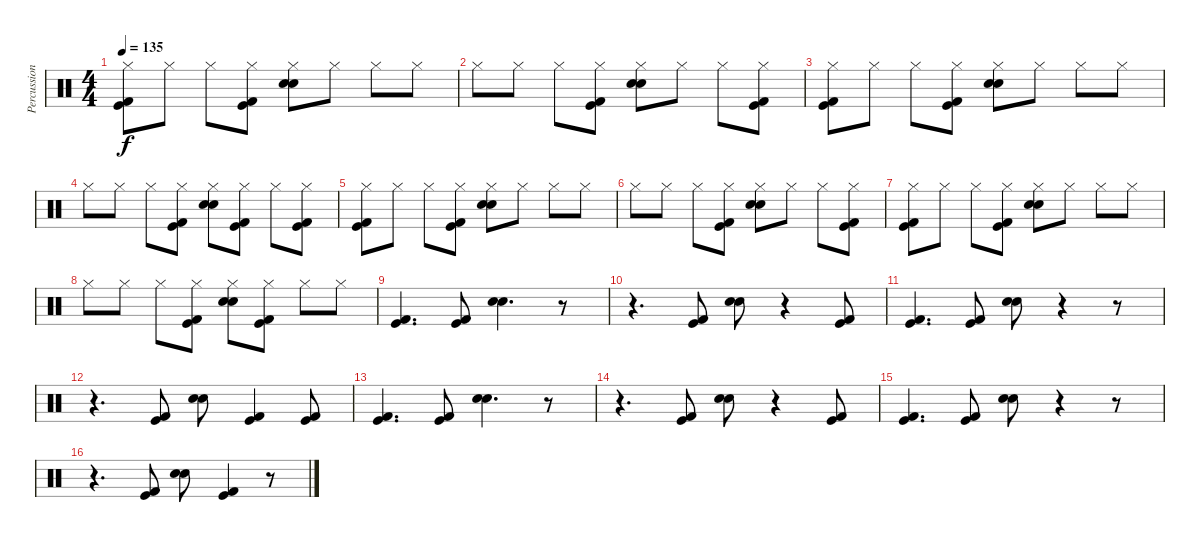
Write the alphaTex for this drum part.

\track ("Percussion" "Percussion") {instrument percussion}
\staff {score}
\articulation defaults
\ts (4 4)
\tempo 135
\clef neutral
\ks c
("Hi-Hat (closed)" "Kick (hit) 2" "Kick (hit)").8{dy f} "Hi-Hat (closed)".8 "Hi-Hat (closed)".8 ("Hi-Hat (closed)" "Kick (hit) 2" "Kick (hit)").8 ("Hi-Hat (closed)" "Hand Clap (hit)" "Electric Snare (hit)").8 "Hi-Hat (closed)".8 "Hi-Hat (closed)".8 "Hi-Hat (closed)".8 |
"Hi-Hat (closed)".8 "Hi-Hat (closed)".8 "Hi-Hat (closed)".8 ("Hi-Hat (closed)" "Kick (hit) 2" "Kick (hit)").8 ("Hi-Hat (closed)" "Hand Clap (hit)" "Electric Snare (hit)").8 "Hi-Hat (closed)".8 "Hi-Hat (closed)".8 ("Hi-Hat (closed)" "Kick (hit) 2" "Kick (hit)").8 |
("Hi-Hat (closed)" "Kick (hit) 2" "Kick (hit)").8 "Hi-Hat (closed)".8 "Hi-Hat (closed)".8 ("Hi-Hat (closed)" "Kick (hit) 2" "Kick (hit)").8 ("Hi-Hat (closed)" "Hand Clap (hit)" "Electric Snare (hit)").8 "Hi-Hat (closed)".8 "Hi-Hat (closed)".8 "Hi-Hat (closed)".8 |
"Hi-Hat (closed)".8 "Hi-Hat (closed)".8 "Hi-Hat (closed)".8 ("Hi-Hat (closed)" "Kick (hit) 2" "Kick (hit)").8 ("Hi-Hat (closed)" "Hand Clap (hit)" "Electric Snare (hit)").8 ("Hi-Hat (closed)" "Kick (hit) 2" "Kick (hit)").8 "Hi-Hat (closed)".8 ("Hi-Hat (closed)" "Kick (hit) 2" "Kick (hit)").8 |
("Hi-Hat (closed)" "Kick (hit) 2" "Kick (hit)").8 "Hi-Hat (closed)".8 "Hi-Hat (closed)".8 ("Hi-Hat (closed)" "Kick (hit) 2" "Kick (hit)").8 ("Hi-Hat (closed)" "Hand Clap (hit)" "Electric Snare (hit)").8 "Hi-Hat (closed)".8 "Hi-Hat (closed)".8 "Hi-Hat (closed)".8 |
"Hi-Hat (closed)".8 "Hi-Hat (closed)".8 "Hi-Hat (closed)".8 ("Hi-Hat (closed)" "Kick (hit) 2" "Kick (hit)").8 ("Hi-Hat (closed)" "Hand Clap (hit)" "Electric Snare (hit)").8 "Hi-Hat (closed)".8 "Hi-Hat (closed)".8 ("Hi-Hat (closed)" "Kick (hit) 2" "Kick (hit)").8 |
("Hi-Hat (closed)" "Kick (hit) 2" "Kick (hit)").8 "Hi-Hat (closed)".8 "Hi-Hat (closed)".8 ("Hi-Hat (closed)" "Kick (hit) 2" "Kick (hit)").8 ("Hi-Hat (closed)" "Hand Clap (hit)" "Electric Snare (hit)").8 "Hi-Hat (closed)".8 "Hi-Hat (closed)".8 "Hi-Hat (closed)".8 |
"Hi-Hat (closed)".8 "Hi-Hat (closed)".8 "Hi-Hat (closed)".8 ("Hi-Hat (closed)" "Kick (hit) 2" "Kick (hit)").8 ("Hi-Hat (closed)" "Hand Clap (hit)" "Electric Snare (hit)").8 ("Hi-Hat (closed)" "Kick (hit) 2" "Kick (hit)").8 "Hi-Hat (closed)".8 "Hi-Hat (closed)".8 |
("Kick (hit) 2" "Kick (hit)").4{d} ("Kick (hit) 2" "Kick (hit)").8 ("Electric Snare (hit)" "Hand Clap (hit)").4{d} r.8 |
r.4{d} ("Kick (hit) 2" "Kick (hit)").8 ("Electric Snare (hit)" "Hand Clap (hit)").8 r.4 ("Kick (hit) 2" "Kick (hit)").8 |
("Kick (hit) 2" "Kick (hit)").4{d} ("Kick (hit) 2" "Kick (hit)").8 ("Electric Snare (hit)" "Hand Clap (hit)").8 r.4 r.8 |
r.4{d} ("Kick (hit) 2" "Kick (hit)").8 ("Electric Snare (hit)" "Hand Clap (hit)").8 ("Kick (hit) 2" "Kick (hit)").4 ("Kick (hit) 2" "Kick (hit)").8 |
("Kick (hit) 2" "Kick (hit)").4{d} ("Kick (hit) 2" "Kick (hit)").8 ("Electric Snare (hit)" "Hand Clap (hit)").4{d} r.8 |
r.4{d} ("Kick (hit) 2" "Kick (hit)").8 ("Electric Snare (hit)" "Hand Clap (hit)").8 r.4 ("Kick (hit) 2" "Kick (hit)").8 |
("Kick (hit) 2" "Kick (hit)").4{d} ("Kick (hit) 2" "Kick (hit)").8 ("Electric Snare (hit)" "Hand Clap (hit)").8 r.4 r.8 |
r.4{d} ("Kick (hit) 2" "Kick (hit)").8 ("Electric Snare (hit)" "Hand Clap (hit)").8 ("Kick (hit) 2" "Kick (hit)").4 r.8
